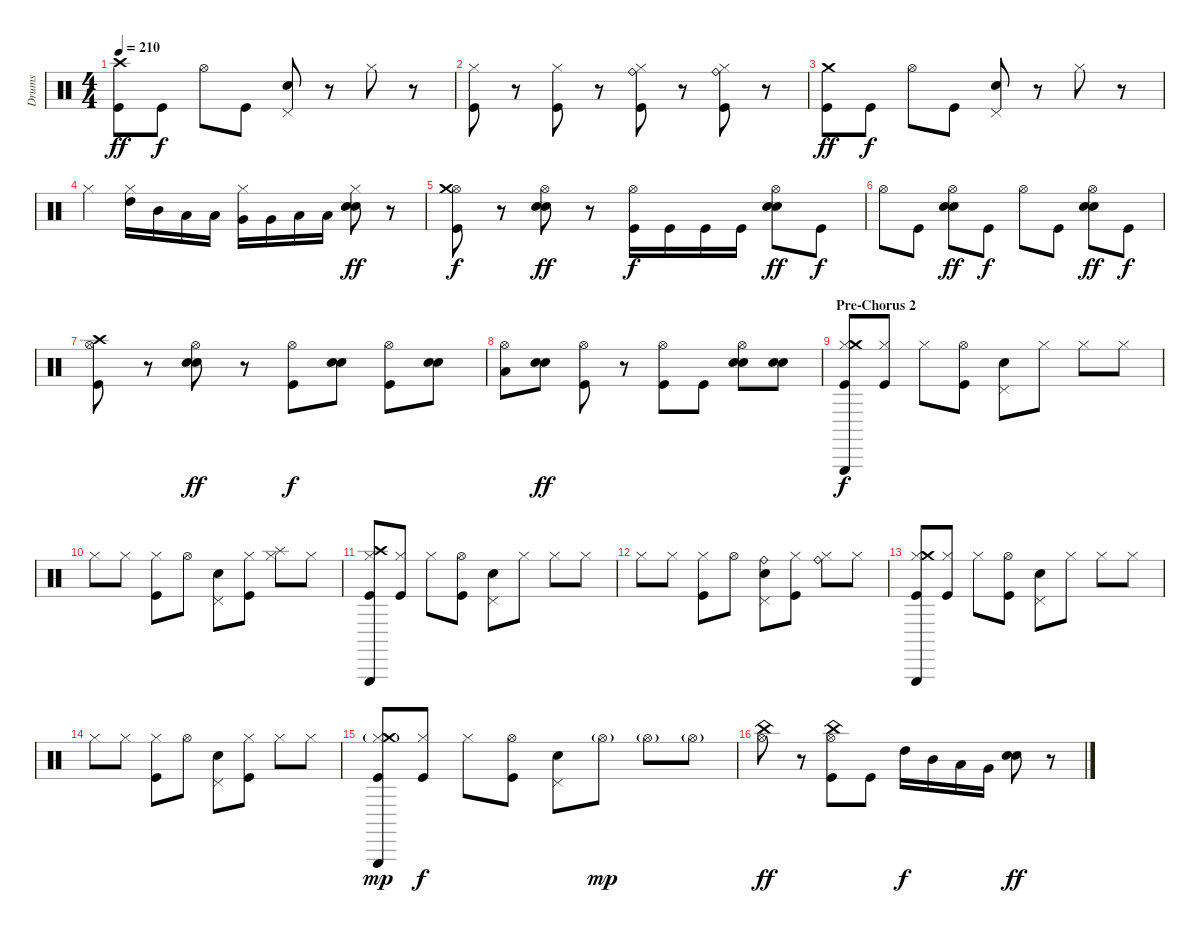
\track ("Drums" "Drums") {instrument percussion}
\staff {score}
\articulation defaults
\ts (4 4)
\tempo 210
\clef neutral
\ks c
("Kick (hit)" "Crash high (hit)").8{dy ff} "Kick (hit)".8{dy f} "Hi-Hat (open)".8 "Kick (hit)".8 ("Electric Snare (hit)" "Pedal Hi-Hat (hit)").8 r.8 "Hi-Hat (closed)".8 r.8 |
("Kick (hit)" "Hi-Hat (closed)").8 r.8 ("Kick (hit)" "Hi-Hat (closed)").8 r.8 ("Kick (hit)" "Ride (bell)" "Hi-Hat (closed)").8 r.8 ("Kick (hit)" "Ride (bell)" "Hi-Hat (closed)").8 r.8 |
("Kick (hit)" "Crash medium (hit)").8{dy ff} "Kick (hit)".8{dy f} "Hi-Hat (open)".8 "Kick (hit)".8 ("Electric Snare (hit)" "Pedal Hi-Hat (hit)").8 r.8 "Hi-Hat (closed)".8 r.8 |
"Hi-Hat (closed)".4 ("High Tom (hit)" "Hi-Hat (closed)").16 "Mid Tom (hit)".16 "Low Tom (hit)".16 "Low Tom (hit)".16 ("Very Low Tom (hit)" "Hi-Hat (closed)").16 "Very Low Tom (hit)".16 "Low Floor Tom (hit)".16 "Low Floor Tom (hit)".16 ("Electric Snare (hit)" "Electric Snare (hit)" "Hi-Hat (closed)").8{dy ff} r.8 |
("Kick (hit)" "Hi-Hat (open)" "Crash medium (hit)").8{dy f} r.8 ("Electric Snare (hit)" "Electric Snare (hit)" "Hi-Hat (open)").8{dy ff} r.8 ("Kick (hit)" "Hi-Hat (open)").16{dy f} "Kick (hit)".16 "Kick (hit)".16 "Kick (hit)".16 ("Electric Snare (hit)" "Electric Snare (hit)" "Hi-Hat (open)").8{dy ff} "Kick (hit)".8{dy f} |
"Hi-Hat (open)".8 "Kick (hit)".8 ("Electric Snare (hit)" "Electric Snare (hit)" "Hi-Hat (open)").8{dy ff} "Kick (hit)".8{dy f} "Hi-Hat (open)".8 "Kick (hit)".8 ("Electric Snare (hit)" "Electric Snare (hit)" "Hi-Hat (open)").8{dy ff} "Kick (hit)".8{dy f} |
("Kick (hit)" "Hi-Hat (open)" "Crash high (hit)").8 r.8 ("Electric Snare (hit)" "Electric Snare (hit)" "Hi-Hat (open)").8{dy ff} r.8 ("Kick (hit)" "Hi-Hat (open)").8{dy f} ("Electric Snare (hit)" "Electric Snare (hit)").8 ("Kick (hit)" "Hi-Hat (open)").8 ("Electric Snare (hit)" "Electric Snare (hit)").8 |
("Low Floor Tom (hit)" "Hi-Hat (open)").8 ("Electric Snare (hit)" "Electric Snare (hit)").8{dy ff} ("Kick (hit)" "Hi-Hat (open)").8 r.8 ("Kick (hit)" "Hi-Hat (open)").8 "Kick (hit)".8 ("Electric Snare (hit)" "Electric Snare (hit)" "Hi-Hat (open)").8 ("Electric Snare (hit)" "Electric Snare (hit)").8 |
\section ("" "Pre-Chorus 2")
("Kick (hit)" "Hi-Hat (closed)" "Triangle (hit)" "Crash medium (hit)").8{dy f} ("Kick (hit)" "Hi-Hat (closed)").8 "Hi-Hat (closed)".8 ("Kick (hit)" "Hi-Hat (open)").8 ("Electric Snare (hit)" "Pedal Hi-Hat (hit)").8 "Hi-Hat (closed)".8 "Hi-Hat (closed)".8 "Hi-Hat (closed)".8 |
"Hi-Hat (closed)".8 "Hi-Hat (closed)".8 ("Kick (hit)" "Hi-Hat (closed)").8 "Hi-Hat (open)".8 ("Electric Snare (hit)" "Pedal Hi-Hat (hit)").8 ("Kick (hit)" "Hi-Hat (closed)").8 ("Hi-Hat (closed)" "Splash (hit)").8 "Hi-Hat (closed)".8 |
("Kick (hit)" "Hi-Hat (closed)" "Triangle (hit)" "Crash high (hit)").8 ("Kick (hit)" "Hi-Hat (closed)").8 "Hi-Hat (closed)".8 ("Kick (hit)" "Hi-Hat (open)").8 ("Electric Snare (hit)" "Pedal Hi-Hat (hit)").8 "Hi-Hat (closed)".8 "Hi-Hat (closed)".8 "Hi-Hat (closed)".8 |
"Hi-Hat (closed)".8 "Hi-Hat (closed)".8 ("Kick (hit)" "Hi-Hat (closed)").8 "Hi-Hat (open)".8 ("Electric Snare (hit)" "Pedal Hi-Hat (hit)" "Ride (bell)").8 ("Kick (hit)" "Hi-Hat (closed)").8 ("Hi-Hat (closed)" "Ride (bell)").8 "Hi-Hat (closed)".8 |
("Kick (hit)" "Hi-Hat (closed)" "Triangle (hit)" "Crash medium (hit)").8 ("Kick (hit)" "Hi-Hat (closed)").8 "Hi-Hat (closed)".8 ("Kick (hit)" "Hi-Hat (open)").8 ("Electric Snare (hit)" "Pedal Hi-Hat (hit)").8 "Hi-Hat (closed)".8 "Hi-Hat (closed)".8 "Hi-Hat (closed)".8 |
"Hi-Hat (closed)".8 "Hi-Hat (closed)".8 ("Kick (hit)" "Hi-Hat (closed)").8 "Hi-Hat (open)".8 ("Electric Snare (hit)" "Pedal Hi-Hat (hit)").8 ("Kick (hit)" "Hi-Hat (closed)").8 "Hi-Hat (closed)".8 "Hi-Hat (closed)".8 |
("Kick (hit)" "Hi-Hat (closed)" "Triangle (hit)" "Crash medium (hit)"{g}).8{dy mp} ("Kick (hit)" "Hi-Hat (closed)").8{dy f} "Hi-Hat (closed)".8 ("Kick (hit)" "Hi-Hat (open)").8 ("Electric Snare (hit)" "Pedal Hi-Hat (hit)").8 "Hi-Hat (open)"{g}.8{dy mp} "Hi-Hat (open)"{g}.8 "Hi-Hat (open)"{g}.8 |
("Hi-Hat (open)" "China (hit)").8{dy ff} r.8 ("Kick (hit)" "Hi-Hat (open)" "China (hit)").8 "Kick (hit)".8 "High Tom (hit)".16{dy f} "Mid Tom (hit)".16 "Low Tom (hit)".16 "Very Low Tom (hit)".16 ("Electric Snare (hit)" "Electric Snare (hit)").8{dy ff} r.8
